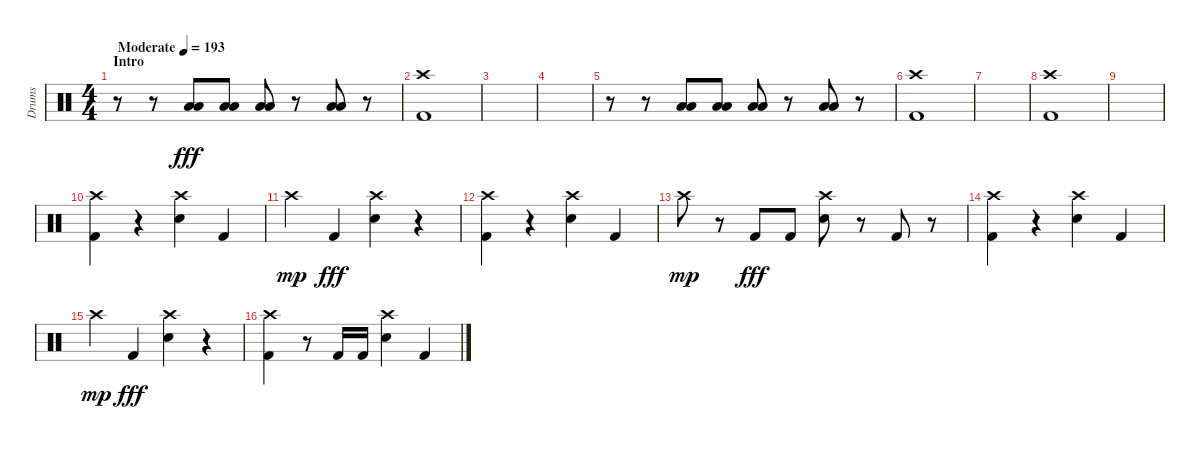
\track ("Drums" "Drums") {instrument percussion}
\staff {score}
\articulation defaults
\ts (4 4)
\section ("" "Intro")
\tempo (193 "Moderate")
\clef neutral
\ks c
r.8{dy fff} r.8 ("Low Tom (hit)" "Low Floor Tom (hit)").8 ("Low Tom (hit)" "Low Floor Tom (hit)").8 ("Low Tom (hit)" "Low Floor Tom (hit)").8 r.8 ("Low Tom (hit)" "Low Floor Tom (hit)").8 r.8 |
("Crash high (hit)" "Kick (hit) 2").1 |
|
|
r.8 r.8 ("Low Tom (hit)" "Low Floor Tom (hit)").8 ("Low Tom (hit)" "Low Floor Tom (hit)").8 ("Low Tom (hit)" "Low Floor Tom (hit)").8 r.8 ("Low Tom (hit)" "Low Floor Tom (hit)").8 r.8 |
("Crash high (hit)" "Kick (hit) 2").1 |
|
("Crash high (hit)" "Kick (hit) 2").1 |
|
("Crash high (hit)" "Kick (hit) 2").4 r.4 ("Crash high (hit)" "Snare (hit) 2").4 "Kick (hit) 2".4 |
"Crash high (hit)".4{dy mp} "Kick (hit) 2".4{dy fff} ("Crash high (hit)" "Snare (hit) 2").4 r.4 |
("Crash high (hit)" "Kick (hit) 2").4 r.4 ("Crash high (hit)" "Snare (hit) 2").4 "Kick (hit) 2".4 |
"Crash high (hit)".8{dy mp} r.8 "Kick (hit) 2".8{dy fff} "Kick (hit) 2".8 ("Crash high (hit)" "Snare (hit) 2").8 r.8 "Kick (hit) 2".8 r.8 |
("Crash high (hit)" "Kick (hit) 2").4 r.4 ("Crash high (hit)" "Snare (hit) 2").4 "Kick (hit) 2".4 |
"Crash high (hit)".4{dy mp} "Kick (hit) 2".4{dy fff} ("Crash high (hit)" "Snare (hit) 2").4 r.4 |
("Crash high (hit)" "Kick (hit) 2").4 r.8 "Kick (hit) 2".16 "Kick (hit) 2".16 ("Crash high (hit)" "Snare (hit) 2").4 "Kick (hit) 2".4
